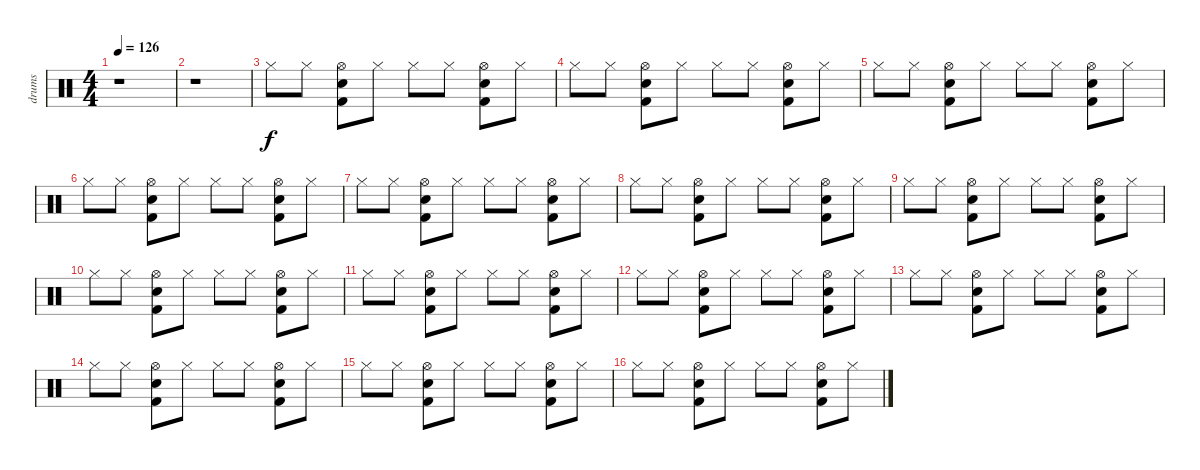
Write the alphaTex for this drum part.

\track ("drums" "drums") {instrument percussion}
\staff {score}
\articulation defaults
\ts (4 4)
\tempo 126
\clef neutral
\ks c
r.1{dy f} |
r.1 |
"Hi-Hat (closed)".8 "Hi-Hat (closed)".8 ("Snare (hit) 2" "Hi-Hat (open)" "Kick (hit) 2").8 "Hi-Hat (closed)".8 "Hi-Hat (closed)".8 "Hi-Hat (closed)".8 ("Snare (hit) 2" "Hi-Hat (open)" "Kick (hit) 2").8 "Hi-Hat (closed)".8 |
"Hi-Hat (closed)".8 "Hi-Hat (closed)".8 ("Snare (hit) 2" "Hi-Hat (open)" "Kick (hit) 2").8 "Hi-Hat (closed)".8 "Hi-Hat (closed)".8 "Hi-Hat (closed)".8 ("Snare (hit) 2" "Hi-Hat (open)" "Kick (hit) 2").8 "Hi-Hat (closed)".8 |
"Hi-Hat (closed)".8 "Hi-Hat (closed)".8 ("Snare (hit) 2" "Hi-Hat (open)" "Kick (hit) 2").8 "Hi-Hat (closed)".8 "Hi-Hat (closed)".8 "Hi-Hat (closed)".8 ("Snare (hit) 2" "Hi-Hat (open)" "Kick (hit) 2").8 "Hi-Hat (closed)".8 |
"Hi-Hat (closed)".8 "Hi-Hat (closed)".8 ("Snare (hit) 2" "Hi-Hat (open)" "Kick (hit) 2").8 "Hi-Hat (closed)".8 "Hi-Hat (closed)".8 "Hi-Hat (closed)".8 ("Snare (hit) 2" "Hi-Hat (open)" "Kick (hit) 2").8 "Hi-Hat (closed)".8 |
"Hi-Hat (closed)".8 "Hi-Hat (closed)".8 ("Snare (hit) 2" "Hi-Hat (open)" "Kick (hit) 2").8 "Hi-Hat (closed)".8 "Hi-Hat (closed)".8 "Hi-Hat (closed)".8 ("Snare (hit) 2" "Hi-Hat (open)" "Kick (hit) 2").8 "Hi-Hat (closed)".8 |
"Hi-Hat (closed)".8 "Hi-Hat (closed)".8 ("Snare (hit) 2" "Hi-Hat (open)" "Kick (hit) 2").8 "Hi-Hat (closed)".8 "Hi-Hat (closed)".8 "Hi-Hat (closed)".8 ("Snare (hit) 2" "Hi-Hat (open)" "Kick (hit) 2").8 "Hi-Hat (closed)".8 |
"Hi-Hat (closed)".8 "Hi-Hat (closed)".8 ("Snare (hit) 2" "Hi-Hat (open)" "Kick (hit) 2").8 "Hi-Hat (closed)".8 "Hi-Hat (closed)".8 "Hi-Hat (closed)".8 ("Snare (hit) 2" "Hi-Hat (open)" "Kick (hit) 2").8 "Hi-Hat (closed)".8 |
"Hi-Hat (closed)".8 "Hi-Hat (closed)".8 ("Snare (hit) 2" "Hi-Hat (open)" "Kick (hit) 2").8 "Hi-Hat (closed)".8 "Hi-Hat (closed)".8 "Hi-Hat (closed)".8 ("Snare (hit) 2" "Hi-Hat (open)" "Kick (hit) 2").8 "Hi-Hat (closed)".8 |
"Hi-Hat (closed)".8 "Hi-Hat (closed)".8 ("Snare (hit) 2" "Hi-Hat (open)" "Kick (hit) 2").8 "Hi-Hat (closed)".8 "Hi-Hat (closed)".8 "Hi-Hat (closed)".8 ("Snare (hit) 2" "Hi-Hat (open)" "Kick (hit) 2").8 "Hi-Hat (closed)".8 |
"Hi-Hat (closed)".8 "Hi-Hat (closed)".8 ("Snare (hit) 2" "Hi-Hat (open)" "Kick (hit) 2").8 "Hi-Hat (closed)".8 "Hi-Hat (closed)".8 "Hi-Hat (closed)".8 ("Snare (hit) 2" "Hi-Hat (open)" "Kick (hit) 2").8 "Hi-Hat (closed)".8 |
"Hi-Hat (closed)".8 "Hi-Hat (closed)".8 ("Snare (hit) 2" "Hi-Hat (open)" "Kick (hit) 2").8 "Hi-Hat (closed)".8 "Hi-Hat (closed)".8 "Hi-Hat (closed)".8 ("Snare (hit) 2" "Hi-Hat (open)" "Kick (hit) 2").8 "Hi-Hat (closed)".8 |
"Hi-Hat (closed)".8 "Hi-Hat (closed)".8 ("Snare (hit) 2" "Hi-Hat (open)" "Kick (hit) 2").8 "Hi-Hat (closed)".8 "Hi-Hat (closed)".8 "Hi-Hat (closed)".8 ("Snare (hit) 2" "Hi-Hat (open)" "Kick (hit) 2").8 "Hi-Hat (closed)".8 |
"Hi-Hat (closed)".8 "Hi-Hat (closed)".8 ("Snare (hit) 2" "Hi-Hat (open)" "Kick (hit) 2").8 "Hi-Hat (closed)".8 "Hi-Hat (closed)".8 "Hi-Hat (closed)".8 ("Snare (hit) 2" "Hi-Hat (open)" "Kick (hit) 2").8 "Hi-Hat (closed)".8 |
"Hi-Hat (closed)".8 "Hi-Hat (closed)".8 ("Snare (hit) 2" "Hi-Hat (open)" "Kick (hit) 2").8 "Hi-Hat (closed)".8 "Hi-Hat (closed)".8 "Hi-Hat (closed)".8 ("Snare (hit) 2" "Hi-Hat (open)" "Kick (hit) 2").8 "Hi-Hat (closed)".8
